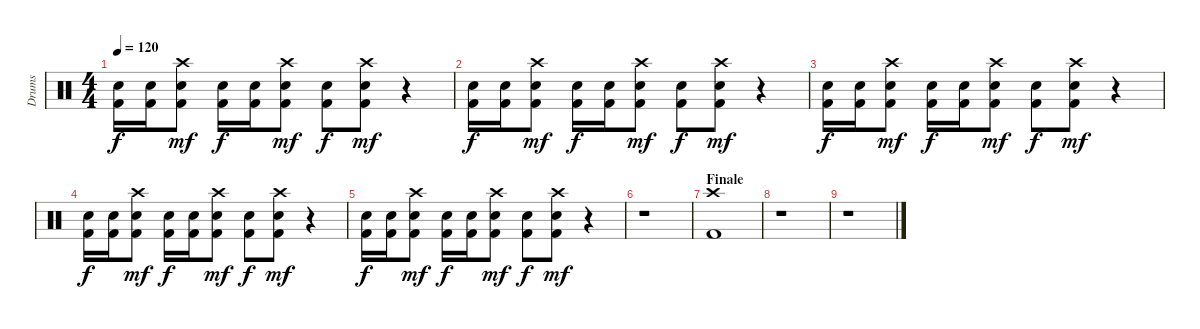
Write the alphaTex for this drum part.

\track ("Drums" "Drums") {instrument percussion}
\staff {score}
\articulation defaults
\ts (4 4)
\tempo 120
\clef neutral
\ks c
("Electric Snare (hit)" "Kick (hit) 2").16{dy f} ("Electric Snare (hit)" "Kick (hit) 2").16 ("Crash high (hit)" "Electric Snare (hit)" "Kick (hit) 2").8{dy mf} ("Electric Snare (hit)" "Kick (hit) 2").16{dy f} ("Electric Snare (hit)" "Kick (hit) 2").16 ("Crash high (hit)" "Electric Snare (hit)" "Kick (hit) 2").8{dy mf} ("Electric Snare (hit)" "Kick (hit) 2").8{dy f} ("Crash high (hit)" "Electric Snare (hit)" "Kick (hit) 2").8{dy mf} r.4 |
("Electric Snare (hit)" "Kick (hit) 2").16{dy f} ("Electric Snare (hit)" "Kick (hit) 2").16 ("Crash high (hit)" "Electric Snare (hit)" "Kick (hit) 2").8{dy mf} ("Electric Snare (hit)" "Kick (hit) 2").16{dy f} ("Electric Snare (hit)" "Kick (hit) 2").16 ("Crash high (hit)" "Electric Snare (hit)" "Kick (hit) 2").8{dy mf} ("Electric Snare (hit)" "Kick (hit) 2").8{dy f} ("Crash high (hit)" "Electric Snare (hit)" "Kick (hit) 2").8{dy mf} r.4 |
("Electric Snare (hit)" "Kick (hit) 2").16{dy f} ("Electric Snare (hit)" "Kick (hit) 2").16 ("Crash high (hit)" "Electric Snare (hit)" "Kick (hit) 2").8{dy mf} ("Electric Snare (hit)" "Kick (hit) 2").16{dy f} ("Electric Snare (hit)" "Kick (hit) 2").16 ("Crash high (hit)" "Electric Snare (hit)" "Kick (hit) 2").8{dy mf} ("Electric Snare (hit)" "Kick (hit) 2").8{dy f} ("Crash high (hit)" "Electric Snare (hit)" "Kick (hit) 2").8{dy mf} r.4 |
("Electric Snare (hit)" "Kick (hit) 2").16{dy f} ("Electric Snare (hit)" "Kick (hit) 2").16 ("Crash high (hit)" "Electric Snare (hit)" "Kick (hit) 2").8{dy mf} ("Electric Snare (hit)" "Kick (hit) 2").16{dy f} ("Electric Snare (hit)" "Kick (hit) 2").16 ("Crash high (hit)" "Electric Snare (hit)" "Kick (hit) 2").8{dy mf} ("Electric Snare (hit)" "Kick (hit) 2").8{dy f} ("Crash high (hit)" "Electric Snare (hit)" "Kick (hit) 2").8{dy mf} r.4 |
("Electric Snare (hit)" "Kick (hit) 2").16{dy f} ("Electric Snare (hit)" "Kick (hit) 2").16 ("Crash high (hit)" "Electric Snare (hit)" "Kick (hit) 2").8{dy mf} ("Electric Snare (hit)" "Kick (hit) 2").16{dy f} ("Electric Snare (hit)" "Kick (hit) 2").16 ("Crash high (hit)" "Electric Snare (hit)" "Kick (hit) 2").8{dy mf} ("Electric Snare (hit)" "Kick (hit) 2").8{dy f} ("Crash high (hit)" "Electric Snare (hit)" "Kick (hit) 2").8{dy mf} r.4 |
r.1 |
\section ("" "Finale")
("Crash high (hit)" "Kick (hit) 2").1 |
r.1 |
r.1
